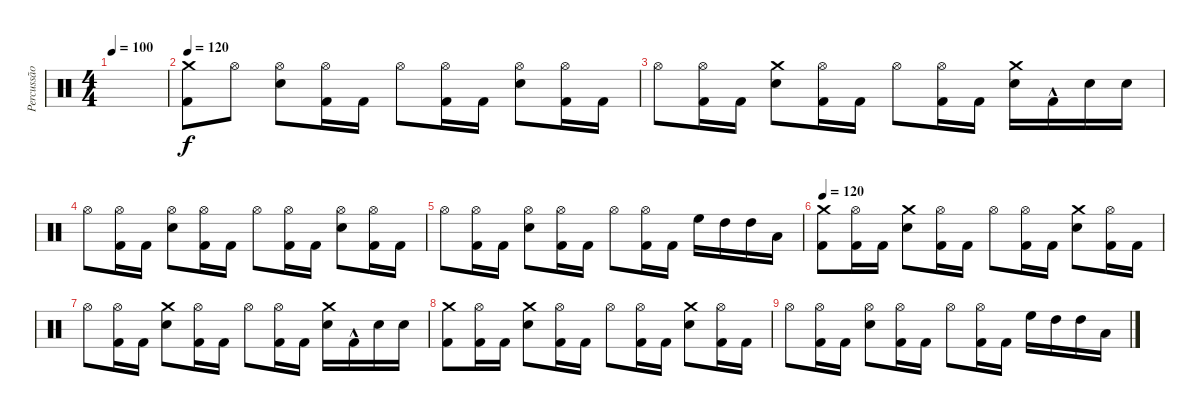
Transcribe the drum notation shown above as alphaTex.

\track ("Percussão" "Percussão") {instrument percussion}
\staff {score}
\articulation defaults
\ts (4 4)
\tempo 100
\clef neutral
\ks c
|
\tempo 120
("Kick (hit) 2" "Crash medium (hit)").8 "Hi-Hat (open)".8 ("Snare (hit) 2" "Hi-Hat (open)").8 ("Kick (hit) 2" "Hi-Hat (open)").16 "Kick (hit) 2".16 "Hi-Hat (open)".8 ("Kick (hit) 2" "Hi-Hat (open)").16 "Kick (hit) 2".16 ("Snare (hit) 2" "Hi-Hat (open)").8 ("Kick (hit) 2" "Hi-Hat (open)").16 "Kick (hit) 2".16 |
"Hi-Hat (open)".8 ("Kick (hit) 2" "Hi-Hat (open)").16 "Kick (hit) 2".16 ("Snare (hit) 2" "Crash medium (hit)").8 ("Kick (hit) 2" "Hi-Hat (open)").16 "Kick (hit) 2".16 "Hi-Hat (open)".8 ("Kick (hit) 2" "Hi-Hat (open)").16 "Kick (hit) 2".16 ("Snare (hit) 2" "Crash medium (hit)").16 "Kick (hit) 2"{hac}.16 "Snare (hit) 2".16 "Snare (hit) 2".16 |
"Hi-Hat (open)".8 ("Kick (hit) 2" "Hi-Hat (open)").16 "Kick (hit) 2".16 ("Snare (hit) 2" "Hi-Hat (open)").8 ("Kick (hit) 2" "Hi-Hat (open)").16 "Kick (hit) 2".16 "Hi-Hat (open)".8 ("Kick (hit) 2" "Hi-Hat (open)").16 "Kick (hit) 2".16 ("Snare (hit) 2" "Hi-Hat (open)").8 ("Kick (hit) 2" "Hi-Hat (open)").16 "Kick (hit) 2".16 |
"Hi-Hat (open)".8 ("Kick (hit) 2" "Hi-Hat (open)").16 "Kick (hit) 2".16 ("Snare (hit) 2" "Hi-Hat (open)").8 ("Kick (hit) 2" "Hi-Hat (open)").16 "Kick (hit) 2".16 "Hi-Hat (open)".8 ("Kick (hit) 2" "Hi-Hat (open)").16 "Kick (hit) 2".16 "High Floor Tom (hit)".16 "High Tom (hit)".16 "High Tom (hit)".16 "Low Tom (hit)".16 |
\tempo 120
("Kick (hit) 2" "Crash medium (hit)").8 ("Kick (hit) 2" "Hi-Hat (open)").16 "Kick (hit) 2".16 ("Snare (hit) 2" "Crash medium (hit)").8 ("Kick (hit) 2" "Hi-Hat (open)").16 "Kick (hit) 2".16 "Hi-Hat (open)".8 ("Kick (hit) 2" "Hi-Hat (open)").16 "Kick (hit) 2".16 ("Snare (hit) 2" "Crash medium (hit)").8 ("Kick (hit) 2" "Hi-Hat (open)").16 "Kick (hit) 2".16 |
"Hi-Hat (open)".8 ("Kick (hit) 2" "Hi-Hat (open)").16 "Kick (hit) 2".16 ("Snare (hit) 2" "Crash medium (hit)").8 ("Kick (hit) 2" "Hi-Hat (open)").16 "Kick (hit) 2".16 "Hi-Hat (open)".8 ("Kick (hit) 2" "Hi-Hat (open)").16 "Kick (hit) 2".16 ("Snare (hit) 2" "Crash medium (hit)").16 "Kick (hit) 2"{hac}.16 "Snare (hit) 2".16 "Snare (hit) 2".16 |
("Kick (hit) 2" "Crash medium (hit)").8 ("Kick (hit) 2" "Hi-Hat (open)").16 "Kick (hit) 2".16 ("Snare (hit) 2" "Crash medium (hit)").8 ("Kick (hit) 2" "Hi-Hat (open)").16 "Kick (hit) 2".16 "Hi-Hat (open)".8 ("Kick (hit) 2" "Hi-Hat (open)").16 "Kick (hit) 2".16 ("Snare (hit) 2" "Crash medium (hit)").8 ("Kick (hit) 2" "Hi-Hat (open)").16 "Kick (hit) 2".16 |
"Hi-Hat (open)".8 ("Kick (hit) 2" "Hi-Hat (open)").16 "Kick (hit) 2".16 ("Snare (hit) 2" "Hi-Hat (open)").8 ("Kick (hit) 2" "Hi-Hat (open)").16 "Kick (hit) 2".16 "Hi-Hat (open)".8 ("Kick (hit) 2" "Hi-Hat (open)").16 "Kick (hit) 2".16 "High Floor Tom (hit)".16 "High Tom (hit)".16 "High Tom (hit)".16 "Low Tom (hit)".16
